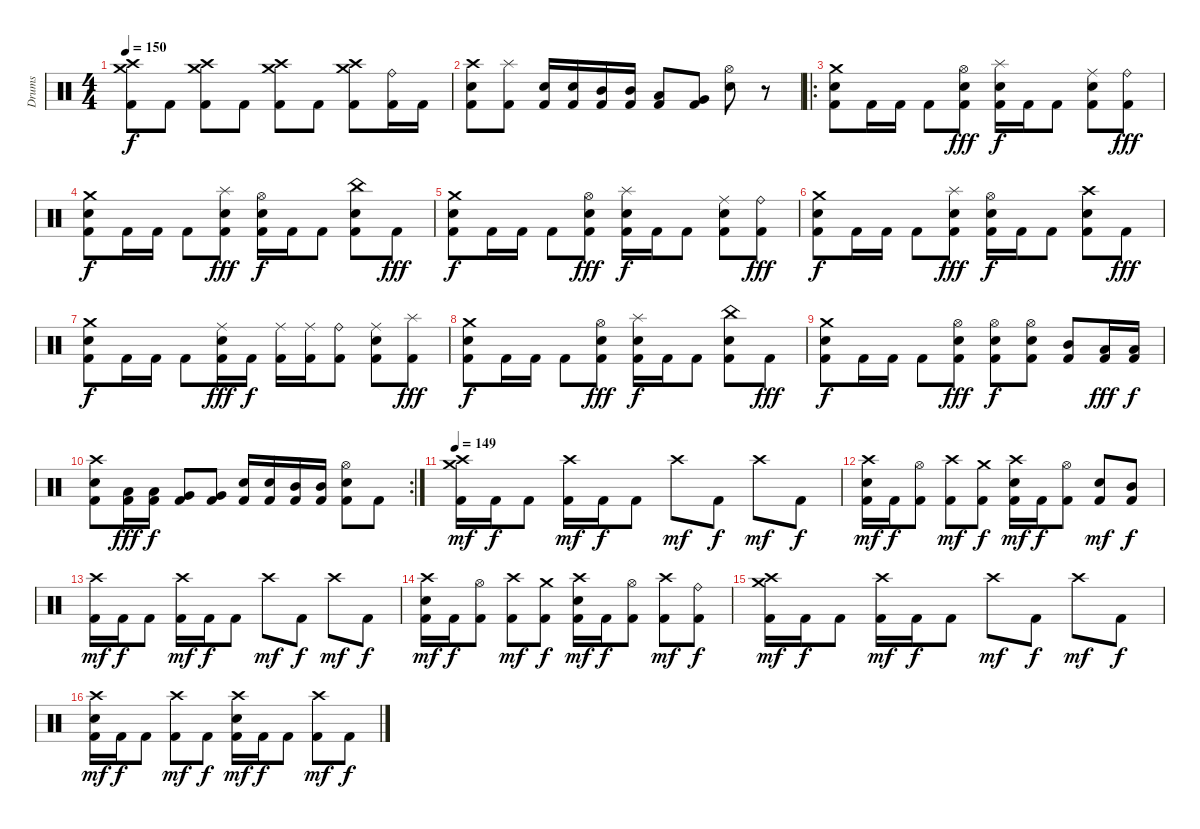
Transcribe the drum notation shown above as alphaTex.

\track ("Drums" "Drums") {solo instrument percussion}
\staff {score}
\articulation defaults
\ts (4 4)
\tempo 150
\clef neutral
\ks c
("Crash high (hit)" "Crash medium (hit)" "Kick (hit) 2").8{dy f} "Kick (hit) 2".8 ("Crash high (hit)" "Crash medium (hit)" "Kick (hit) 2").8 "Kick (hit) 2".8 ("Crash high (hit)" "Crash medium (hit)" "Kick (hit) 2").8 "Kick (hit) 2".8 ("Crash high (hit)" "Crash medium (hit)" "Kick (hit) 2").8 ("Ride (bell)" "Kick (hit) 2").16 "Kick (hit) 2".16 |
("Crash high (hit)" "Electric Snare (hit)" "Kick (hit) 2").8 ("Splash (hit)" "Kick (hit) 2").8 ("Electric Snare (hit)" "Kick (hit) 2").16 ("Electric Snare (hit)" "Kick (hit) 2").16 ("Mid Tom (hit)" "Kick (hit) 2").16 ("Mid Tom (hit)" "Kick (hit) 2").16 ("Low Tom (hit)" "Kick (hit) 2").8 ("Very Low Tom (hit)" "Kick (hit) 2").8 ("Hi-Hat (open)" "Electric Snare (hit)").8 r.8 |
\ro
("Crash medium (hit)" "Electric Snare (hit)" "Kick (hit) 2").8 "Kick (hit) 2".16 "Kick (hit) 2".16 "Kick (hit) 2".8 ("Hi-Hat (open)" "Electric Snare (hit)" "Kick (hit) 2").8{dy fff} ("Splash (hit)" "Electric Snare (hit)" "Kick (hit) 2").16{dy f} "Kick (hit) 2".16 "Kick (hit) 2".8 ("Ride (middle)" "Electric Snare (hit)" "Kick (hit) 2").8 ("Ride (bell)" "Kick (hit) 2").8{dy fff} |
("Crash medium (hit)" "Electric Snare (hit)" "Kick (hit) 2").8{dy f} "Kick (hit) 2".16 "Kick (hit) 2".16 "Kick (hit) 2".8 ("Splash (hit)" "Electric Snare (hit)" "Kick (hit) 2").8{dy fff} ("Hi-Hat (open)" "Electric Snare (hit)" "Kick (hit) 2").16{dy f} "Kick (hit) 2".16 "Kick (hit) 2".8 ("China (hit)" "Electric Snare (hit)" "Kick (hit) 2").8 "Kick (hit) 2".8{dy fff} |
("Crash medium (hit)" "Electric Snare (hit)" "Kick (hit) 2").8{dy f} "Kick (hit) 2".16 "Kick (hit) 2".16 "Kick (hit) 2".8 ("Hi-Hat (open)" "Electric Snare (hit)" "Kick (hit) 2").8{dy fff} ("Splash (hit)" "Electric Snare (hit)" "Kick (hit) 2").16{dy f} "Kick (hit) 2".16 "Kick (hit) 2".8 ("Ride (middle)" "Electric Snare (hit)" "Kick (hit) 2").8 ("Ride (bell)" "Kick (hit) 2").8{dy fff} |
("Crash medium (hit)" "Electric Snare (hit)" "Kick (hit) 2").8{dy f} "Kick (hit) 2".16 "Kick (hit) 2".16 "Kick (hit) 2".8 ("Splash (hit)" "Electric Snare (hit)" "Kick (hit) 2").8{dy fff} ("Hi-Hat (open)" "Electric Snare (hit)" "Kick (hit) 2").16{dy f} "Kick (hit) 2".16 "Kick (hit) 2".8 ("Crash high (hit)" "Electric Snare (hit)" "Kick (hit) 2").8 "Kick (hit) 2".8{dy fff} |
("Crash medium (hit)" "Electric Snare (hit)" "Kick (hit) 2").8{dy f} "Kick (hit) 2".16 "Kick (hit) 2".16 "Kick (hit) 2".8 ("Ride (middle)" "Electric Snare (hit)" "Kick (hit) 2").16{dy fff} "Kick (hit) 2".16{dy f} ("Ride (middle)" "Kick (hit) 2").16 ("Ride (middle)" "Kick (hit) 2").16 ("Ride (bell)" "Kick (hit) 2").8 ("Ride (middle)" "Electric Snare (hit)" "Kick (hit) 2").8 ("Splash (hit)" "Kick (hit) 2").8{dy fff} |
("Crash medium (hit)" "Electric Snare (hit)" "Kick (hit) 2").8{dy f} "Kick (hit) 2".16 "Kick (hit) 2".16 "Kick (hit) 2".8 ("Hi-Hat (open)" "Electric Snare (hit)" "Kick (hit) 2").8{dy fff} ("Splash (hit)" "Electric Snare (hit)" "Kick (hit) 2").16{dy f} "Kick (hit) 2".16 "Kick (hit) 2".8 ("China (hit)" "Electric Snare (hit)" "Kick (hit) 2").8 "Kick (hit) 2".8{dy fff} |
("Crash medium (hit)" "Electric Snare (hit)" "Kick (hit) 2").8{dy f} "Kick (hit) 2".16 "Kick (hit) 2".16 "Kick (hit) 2".8 ("Hi-Hat (open)" "Electric Snare (hit)" "Kick (hit) 2").8{dy fff} ("Hi-Hat (open)" "Electric Snare (hit)" "Kick (hit) 2").8{dy f} ("Hi-Hat (open)" "Electric Snare (hit)" "Kick (hit) 2").8 ("Mid Tom (hit)" "Kick (hit) 2").8 ("Low Tom (hit)" "Kick (hit) 2").16{dy fff} ("Low Tom (hit)" "Kick (hit) 2").16{dy f} |
\rc 2
("Crash high (hit)" "Electric Snare (hit)" "Kick (hit) 2").8 ("Low Tom (hit)" "Kick (hit) 2").16{dy fff} ("Low Tom (hit)" "Kick (hit) 2").16{dy f} ("Very Low Tom (hit)" "Kick (hit) 2").8 ("Very Low Tom (hit)" "Kick (hit) 2").8 ("Electric Snare (hit)" "Kick (hit) 2").16 ("Electric Snare (hit)" "Kick (hit) 2").16 ("Mid Tom (hit)" "Kick (hit) 2").16 ("Mid Tom (hit)" "Kick (hit) 2").16 ("Hi-Hat (open)" "Electric Snare (hit)" "Kick (hit) 2").8 "Kick (hit) 2".8 |
\tempo 149
("Crash high (hit)" "Crash medium (hit)" "Kick (hit) 2").16{dy mf} "Kick (hit) 2".16{dy f} "Kick (hit) 2".8 ("Crash high (hit)" "Kick (hit) 2").16{dy mf} "Kick (hit) 2".16{dy f} "Kick (hit) 2".8 "Crash high (hit)".8{dy mf} "Kick (hit) 2".8{dy f} "Crash high (hit)".8{dy mf} "Kick (hit) 2".8{dy f} |
("Crash high (hit)" "Electric Snare (hit)" "Kick (hit) 2").16{dy mf} "Kick (hit) 2".16{dy f} ("Hi-Hat (open)" "Kick (hit) 2").8 ("Crash high (hit)" "Kick (hit) 2").8{dy mf} ("Crash medium (hit)" "Kick (hit) 2").8{dy f} ("Crash high (hit)" "Electric Snare (hit)" "Kick (hit) 2").16{dy mf} "Kick (hit) 2".16{dy f} ("Hi-Hat (open)" "Kick (hit) 2").8 ("Electric Snare (hit)" "Kick (hit) 2").8{dy mf} ("Mid Tom (hit)" "Kick (hit) 2").8{dy f} |
("Crash high (hit)" "Kick (hit) 2").16{dy mf} "Kick (hit) 2".16{dy f} "Kick (hit) 2".8 ("Crash high (hit)" "Kick (hit) 2").16{dy mf} "Kick (hit) 2".16{dy f} "Kick (hit) 2".8 "Crash high (hit)".8{dy mf} "Kick (hit) 2".8{dy f} "Crash high (hit)".8{dy mf} "Kick (hit) 2".8{dy f} |
("Crash high (hit)" "Electric Snare (hit)" "Kick (hit) 2").16{dy mf} "Kick (hit) 2".16{dy f} ("Hi-Hat (open)" "Kick (hit) 2").8 ("Crash high (hit)" "Kick (hit) 2").8{dy mf} ("Crash medium (hit)" "Kick (hit) 2").8{dy f} ("Crash high (hit)" "Electric Snare (hit)" "Kick (hit) 2").16{dy mf} "Kick (hit) 2".16{dy f} ("Hi-Hat (open)" "Kick (hit) 2").8 ("Crash high (hit)" "Kick (hit) 2").8{dy mf} ("Ride (bell)" "Kick (hit) 2").8{dy f} |
("Crash high (hit)" "Crash medium (hit)" "Kick (hit) 2").16{dy mf} "Kick (hit) 2".16{dy f} "Kick (hit) 2".8 ("Crash high (hit)" "Kick (hit) 2").16{dy mf} "Kick (hit) 2".16{dy f} "Kick (hit) 2".8 "Crash high (hit)".8{dy mf} "Kick (hit) 2".8{dy f} "Crash high (hit)".8{dy mf} "Kick (hit) 2".8{dy f} |
("Crash high (hit)" "Electric Snare (hit)" "Kick (hit) 2").16{dy mf} "Kick (hit) 2".16{dy f} "Kick (hit) 2".8 ("Crash high (hit)" "Kick (hit) 2").8{dy mf} "Kick (hit) 2".8{dy f} ("Crash high (hit)" "Electric Snare (hit)" "Kick (hit) 2").16{dy mf} "Kick (hit) 2".16{dy f} "Kick (hit) 2".8 ("Crash high (hit)" "Kick (hit) 2").8{dy mf} "Kick (hit) 2".8{dy f}
